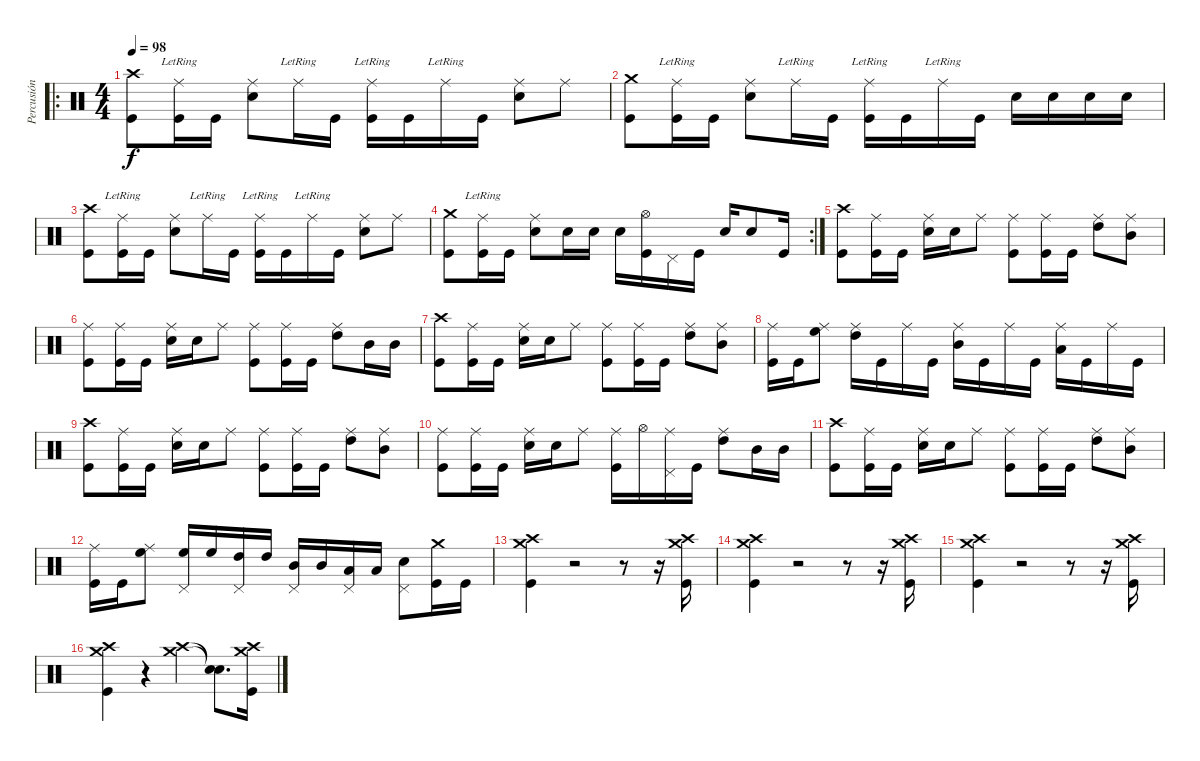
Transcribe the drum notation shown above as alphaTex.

\track ("Percusión" "Percusión") {instrument percussion}
\staff {score}
\articulation defaults
\ro
\ts (4 4)
\tempo 98
\clef neutral
\ks c
("Crash high (hit)" "Kick (hit)").8{dy f} ("Ride (middle)"{lr} "Kick (hit)").16 "Kick (hit)".16 ("Ride (middle)" "Electric Snare (hit)").8 "Ride (middle)"{lr}.16 "Kick (hit)".16 ("Ride (middle)"{lr} "Kick (hit)").16 "Kick (hit)".16 "Ride (middle)"{lr}.16 "Kick (hit)".16 ("Ride (middle)" "Electric Snare (hit)").8 "Ride (middle)".8 |
("Crash medium (hit)" "Kick (hit)").8 ("Ride (middle)"{lr} "Kick (hit)").16 "Kick (hit)".16 ("Ride (middle)" "Electric Snare (hit)").8 "Ride (middle)"{lr}.16 "Kick (hit)".16 ("Ride (middle)"{lr} "Kick (hit)").16 "Kick (hit)".16 "Ride (middle)"{lr}.16 "Kick (hit)".16 "Electric Snare (hit)".16 "Electric Snare (hit)".16 "Electric Snare (hit)".16 "Electric Snare (hit)".16 |
("Crash high (hit)" "Kick (hit)").8 ("Ride (middle)"{lr} "Kick (hit)").16 "Kick (hit)".16 ("Ride (middle)" "Electric Snare (hit)").8 "Ride (middle)"{lr}.16 "Kick (hit)".16 ("Ride (middle)"{lr} "Kick (hit)").16 "Kick (hit)".16 "Ride (middle)"{lr}.16 "Kick (hit)".16 ("Ride (middle)" "Electric Snare (hit)").8 "Ride (middle)".8 |
\rc 2
("Crash medium (hit)" "Kick (hit)").8 ("Ride (middle)"{lr} "Kick (hit)").16 "Kick (hit)".16 ("Ride (middle)" "Electric Snare (hit)").8 "Electric Snare (hit)".16 "Electric Snare (hit)".16 "Electric Snare (hit)".16 ("Hi-Hat (open)" "Kick (hit)").16 "Pedal Hi-Hat (hit)".16 "Kick (hit)".16 "Electric Snare (hit)".16 "Electric Snare (hit)".8 "Kick (hit)".16 |
("Crash high (hit)" "Kick (hit)").8 ("Ride (middle)" "Kick (hit)").16 "Kick (hit)".16 ("Ride (middle)" "Electric Snare (hit)").16 "Electric Snare (hit)".16 "Ride (middle)".8 ("Ride (middle)" "Kick (hit)").8 ("Ride (middle)" "Kick (hit)").16 "Kick (hit)".16 ("Ride (middle)" "High Tom (hit)").8 ("Ride (middle)" "Mid Tom (hit)").8 |
("Ride (middle)" "Kick (hit)").8 ("Ride (middle)" "Kick (hit)").16 "Kick (hit)".16 ("Ride (middle)" "Electric Snare (hit)").16 "Electric Snare (hit)".16 "Ride (middle)".8 ("Ride (middle)" "Kick (hit)").8 ("Ride (middle)" "Kick (hit)").16 "Kick (hit)".16 ("Ride (middle)" "High Tom (hit)").8 "Mid Tom (hit)".16 "Mid Tom (hit)".16 |
("Crash high (hit)" "Kick (hit)").8 ("Ride (middle)" "Kick (hit)").16 "Kick (hit)".16 ("Ride (middle)" "Electric Snare (hit)").16 "Electric Snare (hit)".16 "Ride (middle)".8 ("Ride (middle)" "Kick (hit)").8 ("Ride (middle)" "Kick (hit)").16 "Kick (hit)".16 ("Ride (middle)" "High Tom (hit)").8 ("Ride (middle)" "Mid Tom (hit)").8 |
("Ride (middle)" "Kick (hit)").16 "Kick (hit)".16 ("Ride (middle)" "High Floor Tom (hit)").8 ("Ride (middle)" "High Tom (hit)").16 "Kick (hit)".16 "Ride (middle)".16 "Kick (hit)".16 ("Ride (middle)" "Mid Tom (hit)").16 "Kick (hit)".16 "Ride (middle)".16 "Kick (hit)".16 ("Ride (middle)" "Low Tom (hit)").16 "Kick (hit)".16 "Ride (middle)".16 "Kick (hit)".16 |
("Crash high (hit)" "Kick (hit)").8 ("Ride (middle)" "Kick (hit)").16 "Kick (hit)".16 ("Ride (middle)" "Electric Snare (hit)").16 "Electric Snare (hit)".16 "Ride (middle)".8 ("Ride (middle)" "Kick (hit)").8 ("Ride (middle)" "Kick (hit)").16 "Kick (hit)".16 ("Ride (middle)" "High Tom (hit)").8 ("Ride (middle)" "Mid Tom (hit)").8 |
("Ride (middle)" "Kick (hit)").8 ("Ride (middle)" "Kick (hit)").16 "Kick (hit)".16 ("Ride (middle)" "Electric Snare (hit)").16 "Electric Snare (hit)".16 "Ride (middle)".8 ("Ride (middle)" "Kick (hit)").16 "Hi-Hat (open)".16 ("Ride (middle)" "Pedal Hi-Hat (hit)").16 "Kick (hit)".16 ("Ride (middle)" "High Tom (hit)").8 "Mid Tom (hit)".16 "Mid Tom (hit)".16 |
("Crash high (hit)" "Kick (hit)").8 ("Ride (middle)" "Kick (hit)").16 "Kick (hit)".16 ("Ride (middle)" "Electric Snare (hit)").16 "Electric Snare (hit)".16 "Ride (middle)".8 ("Ride (middle)" "Kick (hit)").8 ("Ride (middle)" "Kick (hit)").16 "Kick (hit)".16 ("Ride (middle)" "High Tom (hit)").8 ("Ride (middle)" "Mid Tom (hit)").8 |
("Ride (middle)" "Kick (hit)").16 "Kick (hit)".16 ("Ride (middle)" "High Floor Tom (hit)").8 ("High Floor Tom (hit)" "Pedal Hi-Hat (hit)").16 "High Floor Tom (hit)".16 ("High Tom (hit)" "Pedal Hi-Hat (hit)").16 "High Tom (hit)".16 ("Mid Tom (hit)" "Pedal Hi-Hat (hit)").16 "Mid Tom (hit)".16 ("Low Tom (hit)" "Pedal Hi-Hat (hit)").16 "Low Tom (hit)".16 ("Electric Snare (hit)" "Pedal Hi-Hat (hit)").8 ("Crash medium (hit)" "Kick (hit)").16 "Kick (hit)".16 |
("Crash high (hit)" "Crash medium (hit)" "Kick (hit)").4 r.2 r.8 r.16 ("Crash high (hit)" "Crash medium (hit)" "Kick (hit)").16 |
("Crash high (hit)" "Crash medium (hit)" "Kick (hit)").4 r.2 r.8 r.16 ("Crash high (hit)" "Crash medium (hit)" "Kick (hit)").16 |
("Crash high (hit)" "Crash medium (hit)" "Kick (hit)").4 r.2 r.8 r.16 ("Crash high (hit)" "Crash medium (hit)" "Kick (hit)").16 |
("Crash high (hit)" "Crash medium (hit)" "Kick (hit)").4 r.4{volume 0} ("Crash high (hit)" "Crash medium (hit)").4{volume 14} ("Snare (hit)"{t} "Snare (hit)"{t}).8{d} ("Crash high (hit)" "Crash medium (hit)" "Kick (hit)").16
